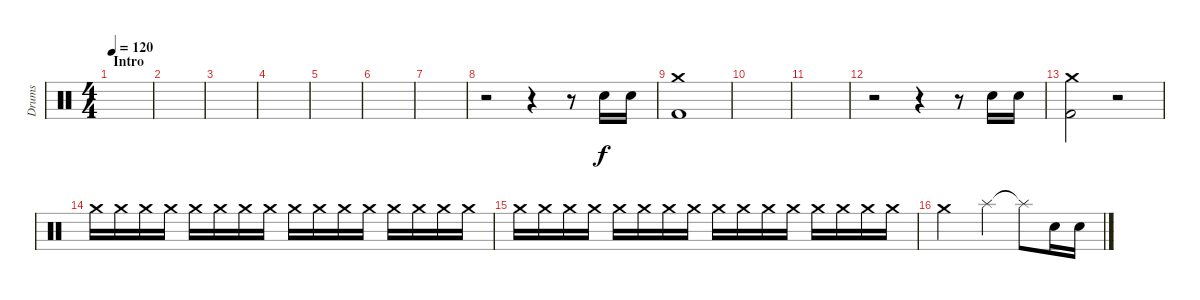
\track ("Drums" "Drums") {instrument percussion}
\staff {score}
\articulation defaults
\ts (4 4)
\section ("" "Intro")
\tempo 120
\clef neutral
\ks c
|
|
|
|
|
|
|
r.2 r.4 r.8 "Electric Snare (hit)".16 "Electric Snare (hit)".16 |
("Crash medium (hit)" "Kick (hit) 2").1 |
|
|
r.2 r.4 r.8 "Electric Snare (hit)".16 "Electric Snare (hit)".16 |
("Crash medium (hit)" "Kick (hit) 2").2 r.2{volume 3} |
"Crash medium (hit)".16{volume 11} "Crash medium (hit)".16 "Crash medium (hit)".16 "Crash medium (hit)".16 "Crash medium (hit)".16 "Crash medium (hit)".16 "Crash medium (hit)".16 "Crash medium (hit)".16 "Crash medium (hit)".16 "Crash medium (hit)".16 "Crash medium (hit)".16 "Crash medium (hit)".16 "Crash medium (hit)".16 "Crash medium (hit)".16 "Crash medium (hit)".16 "Crash medium (hit)".16 |
"Crash medium (hit)".16 "Crash medium (hit)".16 "Crash medium (hit)".16 "Crash medium (hit)".16 "Crash medium (hit)".16 "Crash medium (hit)".16 "Crash medium (hit)".16 "Crash medium (hit)".16 "Crash medium (hit)".16 "Crash medium (hit)".16 "Crash medium (hit)".16 "Crash medium (hit)".16 "Crash medium (hit)".16 "Crash medium (hit)".16 "Crash medium (hit)".16 "Crash medium (hit)".16 |
"Crash medium (hit)".2 "Splash (hit)".4 "Splash (hit)"{t}.8 "Electric Snare (hit)".16 "Electric Snare (hit)".16
